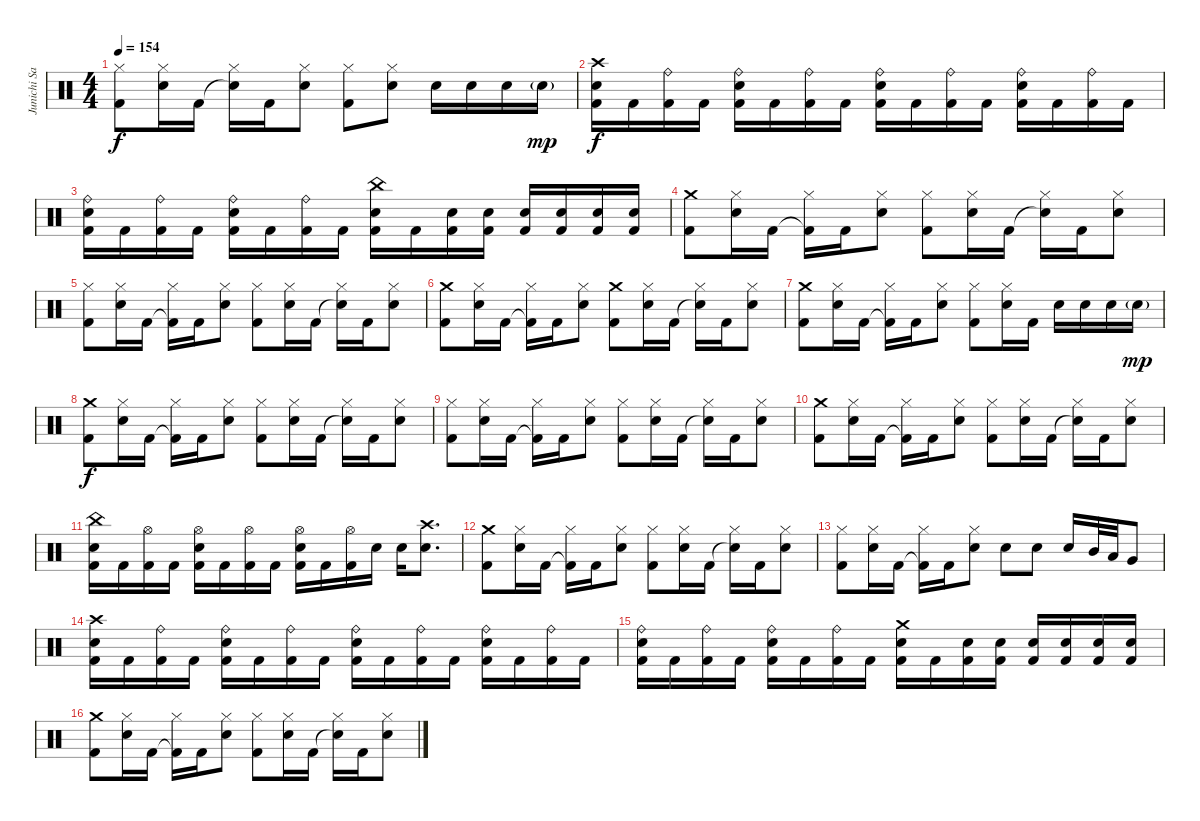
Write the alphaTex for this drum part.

\track ("Junichi Sato" "Junichi Sa") {instrument percussion}
\staff {score}
\articulation defaults
\ts (4 4)
\tempo 154
\clef neutral
\ks c
("Kick (hit) 2" "Hi-Hat (closed)").8{dy f} ("Electric Snare (hit)" "Hi-Hat (closed)").16 "Kick (hit) 2".16 ("Snare (hit)"{t} "Hi-Hat (closed)").16 "Kick (hit) 2".16 ("Electric Snare (hit)" "Hi-Hat (closed)").8 ("Kick (hit) 2" "Hi-Hat (closed)").8 ("Electric Snare (hit)" "Hi-Hat (closed)").8 "Electric Snare (hit)".16 "Electric Snare (hit)".16 "Electric Snare (hit)".16 "Electric Snare (hit)"{g}.16{dy mp} |
("Kick (hit) 2" "Electric Snare (hit)" "Crash high (hit)").16{dy f} "Kick (hit) 2".16 ("Kick (hit) 2" "Ride (bell)").16 "Kick (hit) 2".16 ("Kick (hit) 2" "Electric Snare (hit)" "Ride (bell)").16 "Kick (hit) 2".16 ("Kick (hit) 2" "Ride (bell)").16 "Kick (hit) 2".16 ("Kick (hit) 2" "Electric Snare (hit)" "Ride (bell)").16 "Kick (hit) 2".16 ("Kick (hit) 2" "Ride (bell)").16 "Kick (hit) 2".16 ("Kick (hit) 2" "Electric Snare (hit)" "Ride (bell)").16 "Kick (hit) 2".16 ("Kick (hit) 2" "Ride (bell)").16 "Kick (hit) 2".16 |
("Kick (hit) 2" "Electric Snare (hit)" "Ride (bell)").16 "Kick (hit) 2".16 ("Kick (hit) 2" "Ride (bell)").16 "Kick (hit) 2".16 ("Kick (hit) 2" "Electric Snare (hit)" "Ride (bell)").16 "Kick (hit) 2".16 ("Kick (hit) 2" "Ride (bell)").16 "Kick (hit) 2".16 ("Kick (hit) 2" "Electric Snare (hit)" "China (hit)").16 "Kick (hit) 2".16 ("Kick (hit) 2" "Electric Snare (hit)").16 ("Kick (hit) 2" "Electric Snare (hit)").16 ("Kick (hit) 2" "Electric Snare (hit)").16 ("Kick (hit) 2" "Electric Snare (hit)").16 ("Kick (hit) 2" "Electric Snare (hit)").16 ("Kick (hit) 2" "Electric Snare (hit)").16 |
("Kick (hit) 2" "Crash medium (hit)").8 ("Electric Snare (hit)" "Hi-Hat (closed)").16 "Kick (hit) 2".16 ("Kick (hit) 2"{t} "Hi-Hat (closed)").16 "Kick (hit) 2".16 ("Electric Snare (hit)" "Hi-Hat (closed)").8 ("Kick (hit) 2" "Hi-Hat (closed)").8 ("Electric Snare (hit)" "Hi-Hat (closed)").16 "Kick (hit) 2".16 ("Snare (hit)"{t} "Hi-Hat (closed)").16 "Kick (hit) 2".16 ("Electric Snare (hit)" "Hi-Hat (closed)").8 |
("Kick (hit) 2" "Hi-Hat (closed)").8 ("Electric Snare (hit)" "Hi-Hat (closed)").16 "Kick (hit) 2".16 ("Kick (hit) 2"{t} "Hi-Hat (closed)").16 "Kick (hit) 2".16 ("Electric Snare (hit)" "Hi-Hat (closed)").8 ("Kick (hit) 2" "Hi-Hat (closed)").8 ("Electric Snare (hit)" "Hi-Hat (closed)").16 "Kick (hit) 2".16 ("Snare (hit)"{t} "Hi-Hat (closed)").16 "Kick (hit) 2".16 ("Electric Snare (hit)" "Hi-Hat (closed)").8 |
("Kick (hit) 2" "Crash medium (hit)").8 ("Electric Snare (hit)" "Hi-Hat (closed)").16 "Kick (hit) 2".16 ("Kick (hit) 2"{t} "Hi-Hat (closed)").16 "Kick (hit) 2".16 ("Electric Snare (hit)" "Hi-Hat (closed)").8 ("Kick (hit) 2" "Crash medium (hit)").8 ("Electric Snare (hit)" "Hi-Hat (closed)").16 "Kick (hit) 2".16 ("Snare (hit)"{t} "Hi-Hat (closed)").16 "Kick (hit) 2".16 ("Electric Snare (hit)" "Hi-Hat (closed)").8 |
("Kick (hit) 2" "Crash medium (hit)").8 ("Electric Snare (hit)" "Hi-Hat (closed)").16 "Kick (hit) 2".16 ("Kick (hit) 2"{t} "Hi-Hat (closed)").16 "Kick (hit) 2".16 ("Electric Snare (hit)" "Hi-Hat (closed)").8 ("Kick (hit) 2" "Hi-Hat (closed)").8 ("Electric Snare (hit)" "Hi-Hat (closed)").16 "Kick (hit) 2".16 "Electric Snare (hit)".16 "Electric Snare (hit)".16 "Electric Snare (hit)".16 "Electric Snare (hit)"{g}.16{dy mp} |
("Kick (hit) 2" "Crash medium (hit)").8{dy f} ("Electric Snare (hit)" "Hi-Hat (closed)").16 "Kick (hit) 2".16 ("Kick (hit) 2"{t} "Hi-Hat (closed)").16 "Kick (hit) 2".16 ("Electric Snare (hit)" "Hi-Hat (closed)").8 ("Kick (hit) 2" "Hi-Hat (closed)").8 ("Electric Snare (hit)" "Hi-Hat (closed)").16 "Kick (hit) 2".16 ("Snare (hit)"{t} "Hi-Hat (closed)").16 "Kick (hit) 2".16 ("Electric Snare (hit)" "Hi-Hat (closed)").8 |
("Kick (hit) 2" "Hi-Hat (closed)").8 ("Electric Snare (hit)" "Hi-Hat (closed)").16 "Kick (hit) 2".16 ("Kick (hit) 2"{t} "Hi-Hat (closed)").16 "Kick (hit) 2".16 ("Electric Snare (hit)" "Hi-Hat (closed)").8 ("Kick (hit) 2" "Hi-Hat (closed)").8 ("Electric Snare (hit)" "Hi-Hat (closed)").16 "Kick (hit) 2".16 ("Snare (hit)"{t} "Hi-Hat (closed)").16 "Kick (hit) 2".16 ("Electric Snare (hit)" "Hi-Hat (closed)").8 |
("Kick (hit) 2" "Crash medium (hit)").8 ("Electric Snare (hit)" "Hi-Hat (closed)").16 "Kick (hit) 2".16 ("Kick (hit) 2"{t} "Hi-Hat (closed)").16 "Kick (hit) 2".16 ("Electric Snare (hit)" "Hi-Hat (closed)").8 ("Kick (hit) 2" "Hi-Hat (closed)").8 ("Electric Snare (hit)" "Hi-Hat (closed)").16 "Kick (hit) 2".16 ("Snare (hit)"{t} "Hi-Hat (closed)").16 "Kick (hit) 2".16 ("Electric Snare (hit)" "Hi-Hat (closed)").8 |
("Kick (hit) 2" "Electric Snare (hit)" "China (hit)").16 "Kick (hit) 2".16 ("Kick (hit) 2" "Hi-Hat (open)").16 "Kick (hit) 2".16 ("Kick (hit) 2" "Electric Snare (hit)" "Hi-Hat (open)").16 "Kick (hit) 2".16 ("Kick (hit) 2" "Hi-Hat (open)").16 "Kick (hit) 2".16 ("Kick (hit) 2" "Electric Snare (hit)" "Hi-Hat (open)").16 "Kick (hit) 2".16 ("Kick (hit) 2" "Hi-Hat (open)").16 "Electric Snare (hit)".16 "Electric Snare (hit)".16 ("Electric Snare (hit)" "Crash high (hit)").8{d} |
("Kick (hit) 2" "Crash medium (hit)").8 ("Electric Snare (hit)" "Hi-Hat (closed)").16 "Kick (hit) 2".16 ("Kick (hit) 2"{t} "Hi-Hat (closed)").16 "Kick (hit) 2".16 ("Electric Snare (hit)" "Hi-Hat (closed)").8 ("Kick (hit) 2" "Hi-Hat (closed)").8 ("Electric Snare (hit)" "Hi-Hat (closed)").16 "Kick (hit) 2".16 ("Snare (hit)"{t} "Hi-Hat (closed)").16 "Kick (hit) 2".16 ("Electric Snare (hit)" "Hi-Hat (closed)").8 |
("Kick (hit) 2" "Hi-Hat (closed)").8 ("Electric Snare (hit)" "Hi-Hat (closed)").16 "Kick (hit) 2".16 ("Kick (hit) 2"{t} "Hi-Hat (closed)").16 "Kick (hit) 2".16 ("Electric Snare (hit)" "Hi-Hat (closed)").8 "Electric Snare (hit)".8 "Electric Snare (hit)".8 "Electric Snare (hit)".16 "Mid Tom (hit)".32 "Low Tom (hit)".32 "Very Low Tom (hit)".8 |
("Kick (hit) 2" "Electric Snare (hit)" "Crash high (hit)").16 "Kick (hit) 2".16 ("Kick (hit) 2" "Ride (bell)").16 "Kick (hit) 2".16 ("Kick (hit) 2" "Electric Snare (hit)" "Ride (bell)").16 "Kick (hit) 2".16 ("Kick (hit) 2" "Ride (bell)").16 "Kick (hit) 2".16 ("Kick (hit) 2" "Electric Snare (hit)" "Ride (bell)").16 "Kick (hit) 2".16 ("Kick (hit) 2" "Ride (bell)").16 "Kick (hit) 2".16 ("Kick (hit) 2" "Electric Snare (hit)" "Ride (bell)").16 "Kick (hit) 2".16 ("Kick (hit) 2" "Ride (bell)").16 "Kick (hit) 2".16 |
("Kick (hit) 2" "Electric Snare (hit)" "Ride (bell)").16 "Kick (hit) 2".16 ("Kick (hit) 2" "Ride (bell)").16 "Kick (hit) 2".16 ("Kick (hit) 2" "Electric Snare (hit)" "Ride (bell)").16 "Kick (hit) 2".16 ("Kick (hit) 2" "Ride (bell)").16 "Kick (hit) 2".16 ("Kick (hit) 2" "Electric Snare (hit)" "Crash medium (hit)").16 "Kick (hit) 2".16 ("Kick (hit) 2" "Electric Snare (hit)").16 ("Kick (hit) 2" "Electric Snare (hit)").16 ("Kick (hit) 2" "Electric Snare (hit)").16 ("Kick (hit) 2" "Electric Snare (hit)").16 ("Kick (hit) 2" "Electric Snare (hit)").16 ("Kick (hit) 2" "Electric Snare (hit)").16 |
("Kick (hit) 2" "Crash medium (hit)").8 ("Electric Snare (hit)" "Hi-Hat (closed)").16 "Kick (hit) 2".16 ("Kick (hit) 2"{t} "Hi-Hat (closed)").16 "Kick (hit) 2".16 ("Electric Snare (hit)" "Hi-Hat (closed)").8 ("Kick (hit) 2" "Hi-Hat (closed)").8 ("Electric Snare (hit)" "Hi-Hat (closed)").16 "Kick (hit) 2".16 ("Snare (hit)"{t} "Hi-Hat (closed)").16 "Kick (hit) 2".16 ("Electric Snare (hit)" "Hi-Hat (closed)").8
